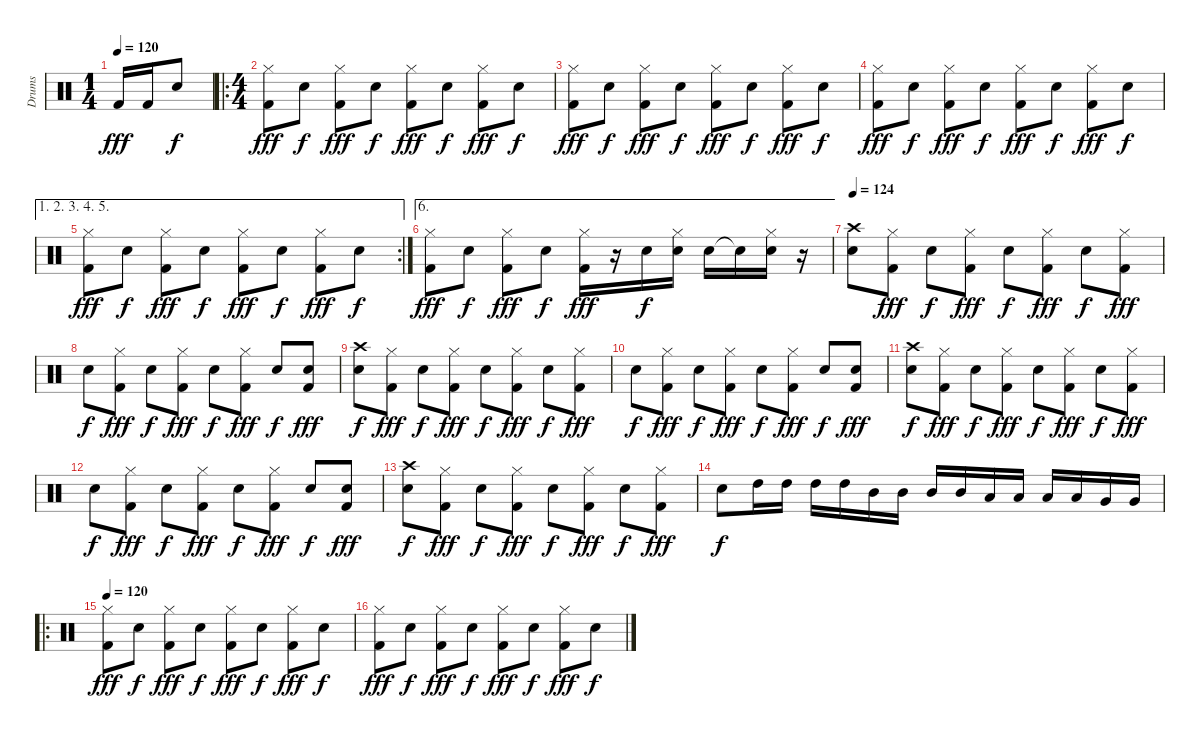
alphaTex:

\track ("Drums" "Drums") {instrument percussion}
\staff {score}
\articulation defaults
\ts (1 4)
\tempo 120
\clef neutral
\ks c "Kick (hit) 2".16{dy fff} "Kick (hit) 2".16 "Snare (hit) 2".8{dy f}
|
\ro
\ts (4 4)
("Hi-Hat (closed)" "Kick (hit) 2").8{dy fff} "Snare (hit) 2".8{dy f} ("Hi-Hat (closed)" "Kick (hit) 2").8{dy fff} "Snare (hit) 2".8{dy f} ("Hi-Hat (closed)" "Kick (hit) 2").8{dy fff} "Snare (hit) 2".8{dy f} ("Hi-Hat (closed)" "Kick (hit) 2").8{dy fff} "Snare (hit) 2".8{dy f} |
("Hi-Hat (closed)" "Kick (hit) 2").8{dy fff} "Snare (hit) 2".8{dy f} ("Hi-Hat (closed)" "Kick (hit) 2").8{dy fff} "Snare (hit) 2".8{dy f} ("Hi-Hat (closed)" "Kick (hit) 2").8{dy fff} "Snare (hit) 2".8{dy f} ("Hi-Hat (closed)" "Kick (hit) 2").8{dy fff} "Snare (hit) 2".8{dy f} |
("Hi-Hat (closed)" "Kick (hit) 2").8{dy fff} "Snare (hit) 2".8{dy f} ("Hi-Hat (closed)" "Kick (hit) 2").8{dy fff} "Snare (hit) 2".8{dy f} ("Hi-Hat (closed)" "Kick (hit) 2").8{dy fff} "Snare (hit) 2".8{dy f} ("Hi-Hat (closed)" "Kick (hit) 2").8{dy fff} "Snare (hit) 2".8{dy f} |
\ae (1 2 3 4 5)
\rc 2
("Hi-Hat (closed)" "Kick (hit) 2").8{dy fff} "Snare (hit) 2".8{dy f} ("Hi-Hat (closed)" "Kick (hit) 2").8{dy fff} "Snare (hit) 2".8{dy f} ("Hi-Hat (closed)" "Kick (hit) 2").8{dy fff} "Snare (hit) 2".8{dy f} ("Hi-Hat (closed)" "Kick (hit) 2").8{dy fff} "Snare (hit) 2".8{dy f} |
\ae 6
("Hi-Hat (closed)" "Kick (hit) 2").8{dy fff} "Snare (hit) 2".8{dy f} ("Hi-Hat (closed)" "Kick (hit) 2").8{dy fff} "Snare (hit) 2".8{dy f} ("Hi-Hat (closed)" "Kick (hit) 2").16{dy fff} r.16 "Snare (hit) 2".16{dy f} ("Hi-Hat (closed)" "Snare (hit) 2").16 "Snare (hit) 2".16 "Snare (hit) 2"{t}.16 ("Hi-Hat (closed)" "Snare (hit) 2").16 r.16 |
\tempo 124
("Crash high (hit)" "Snare (hit) 2").8 ("Hi-Hat (closed)" "Kick (hit) 2").8{dy fff} "Snare (hit) 2".8{dy f} ("Hi-Hat (closed)" "Kick (hit) 2").8{dy fff} "Snare (hit) 2".8{dy f} ("Hi-Hat (closed)" "Kick (hit) 2").8{dy fff} "Snare (hit) 2".8{dy f} ("Hi-Hat (closed)" "Kick (hit) 2").8{dy fff} |
"Snare (hit) 2".8{dy f} ("Hi-Hat (closed)" "Kick (hit) 2").8{dy fff} "Snare (hit) 2".8{dy f} ("Hi-Hat (closed)" "Kick (hit) 2").8{dy fff} "Snare (hit) 2".8{dy f} ("Hi-Hat (closed)" "Kick (hit) 2").8{dy fff} "Snare (hit) 2".8{dy f} ("Snare (hit) 2" "Kick (hit) 2").8{dy fff} |
("Crash high (hit)" "Snare (hit) 2").8{dy f} ("Hi-Hat (closed)" "Kick (hit) 2").8{dy fff} "Snare (hit) 2".8{dy f} ("Hi-Hat (closed)" "Kick (hit) 2").8{dy fff} "Snare (hit) 2".8{dy f} ("Hi-Hat (closed)" "Kick (hit) 2").8{dy fff} "Snare (hit) 2".8{dy f} ("Hi-Hat (closed)" "Kick (hit) 2").8{dy fff} |
"Snare (hit) 2".8{dy f} ("Hi-Hat (closed)" "Kick (hit) 2").8{dy fff} "Snare (hit) 2".8{dy f} ("Hi-Hat (closed)" "Kick (hit) 2").8{dy fff} "Snare (hit) 2".8{dy f} ("Hi-Hat (closed)" "Kick (hit) 2").8{dy fff} "Snare (hit) 2".8{dy f} ("Snare (hit) 2" "Kick (hit) 2").8{dy fff} |
("Crash high (hit)" "Snare (hit) 2").8{dy f} ("Hi-Hat (closed)" "Kick (hit) 2").8{dy fff} "Snare (hit) 2".8{dy f} ("Hi-Hat (closed)" "Kick (hit) 2").8{dy fff} "Snare (hit) 2".8{dy f} ("Hi-Hat (closed)" "Kick (hit) 2").8{dy fff} "Snare (hit) 2".8{dy f} ("Hi-Hat (closed)" "Kick (hit) 2").8{dy fff} |
"Snare (hit) 2".8{dy f} ("Hi-Hat (closed)" "Kick (hit) 2").8{dy fff} "Snare (hit) 2".8{dy f} ("Hi-Hat (closed)" "Kick (hit) 2").8{dy fff} "Snare (hit) 2".8{dy f} ("Hi-Hat (closed)" "Kick (hit) 2").8{dy fff} "Snare (hit) 2".8{dy f} ("Snare (hit) 2" "Kick (hit) 2").8{dy fff} |
("Crash high (hit)" "Snare (hit) 2").8{dy f} ("Hi-Hat (closed)" "Kick (hit) 2").8{dy fff} "Snare (hit) 2".8{dy f} ("Hi-Hat (closed)" "Kick (hit) 2").8{dy fff} "Snare (hit) 2".8{dy f} ("Hi-Hat (closed)" "Kick (hit) 2").8{dy fff} "Snare (hit) 2".8{dy f} ("Hi-Hat (closed)" "Kick (hit) 2").8{dy fff} |
"Snare (hit) 2".8{dy f} "High Tom (hit)".16 "High Tom (hit)".16 "High Tom (hit)".16 "High Tom (hit)".16 "Mid Tom (hit)".16 "Mid Tom (hit)".16 "Mid Tom (hit)".16 "Mid Tom (hit)".16 "Low Tom (hit)".16 "Low Tom (hit)".16 "Low Tom (hit)".16 "Low Tom (hit)".16 "Very Low Tom (hit)".16 "Very Low Tom (hit)".16 |
\ro
\tempo 120
("Hi-Hat (closed)" "Kick (hit) 2").8{dy fff} "Snare (hit) 2".8{dy f} ("Hi-Hat (closed)" "Kick (hit) 2").8{dy fff} "Snare (hit) 2".8{dy f} ("Hi-Hat (closed)" "Kick (hit) 2").8{dy fff} "Snare (hit) 2".8{dy f} ("Hi-Hat (closed)" "Kick (hit) 2").8{dy fff} "Snare (hit) 2".8{dy f} |
("Hi-Hat (closed)" "Kick (hit) 2").8{dy fff} "Snare (hit) 2".8{dy f} ("Hi-Hat (closed)" "Kick (hit) 2").8{dy fff} "Snare (hit) 2".8{dy f} ("Hi-Hat (closed)" "Kick (hit) 2").8{dy fff} "Snare (hit) 2".8{dy f} ("Hi-Hat (closed)" "Kick (hit) 2").8{dy fff} "Snare (hit) 2".8{dy f}
